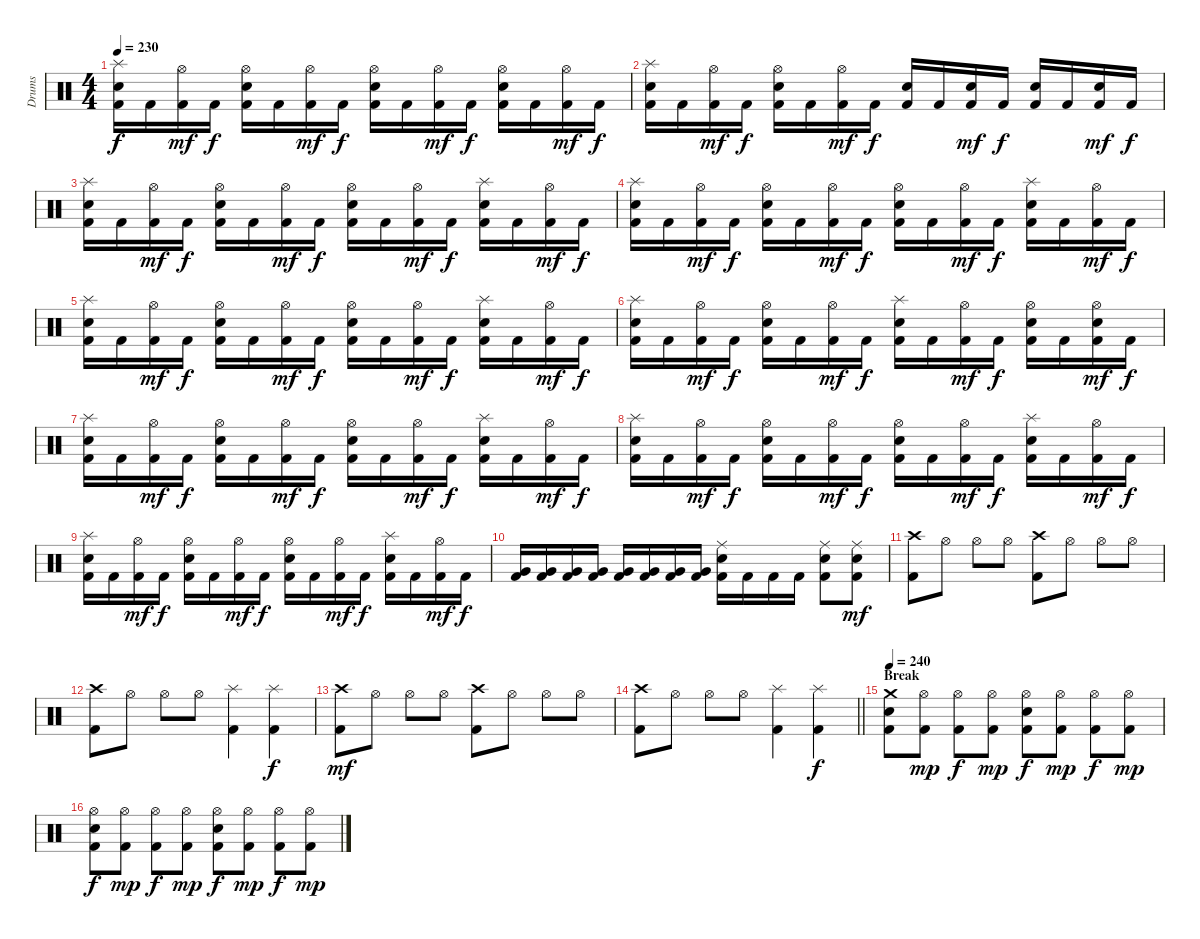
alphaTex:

\track ("Drums" "Drums") {instrument percussion}
\staff {score}
\articulation defaults
\ts (4 4)
\tempo 230
\clef neutral
\ks c
("Splash (hit)" "Snare (hit) 2" "Kick (hit) 2").16{dy f} "Kick (hit) 2".16 ("Hi-Hat (open)" "Kick (hit) 2").16{dy mf} "Kick (hit) 2".16{dy f} ("Hi-Hat (open)" "Snare (hit) 2" "Kick (hit) 2").16 "Kick (hit) 2".16 ("Hi-Hat (open)" "Kick (hit) 2").16{dy mf} "Kick (hit) 2".16{dy f} ("Hi-Hat (open)" "Snare (hit) 2" "Kick (hit) 2").16 "Kick (hit) 2".16 ("Hi-Hat (open)" "Kick (hit) 2").16{dy mf} "Kick (hit) 2".16{dy f} ("Hi-Hat (open)" "Snare (hit) 2" "Kick (hit) 2").16 "Kick (hit) 2".16 ("Hi-Hat (open)" "Kick (hit) 2").16{dy mf} "Kick (hit) 2".16{dy f} |
("Splash (hit)" "Snare (hit) 2" "Kick (hit) 2").16 "Kick (hit) 2".16 ("Hi-Hat (open)" "Kick (hit) 2").16{dy mf} "Kick (hit) 2".16{dy f} ("Hi-Hat (open)" "Snare (hit) 2" "Kick (hit) 2").16 "Kick (hit) 2".16 ("Hi-Hat (open)" "Kick (hit) 2").16{dy mf} "Kick (hit) 2".16{dy f} ("Snare (hit) 2" "Kick (hit) 2").16 "Kick (hit) 2".16 ("Snare (hit) 2" "Kick (hit) 2").16{dy mf} "Kick (hit) 2".16{dy f} ("Snare (hit) 2" "Kick (hit) 2").16 "Kick (hit) 2".16 ("Snare (hit) 2" "Kick (hit) 2").16{dy mf} "Kick (hit) 2".16{dy f} |
("Splash (hit)" "Snare (hit) 2" "Kick (hit) 2").16 "Kick (hit) 2".16 ("Hi-Hat (open)" "Kick (hit) 2").16{dy mf} "Kick (hit) 2".16{dy f} ("Hi-Hat (open)" "Snare (hit) 2" "Kick (hit) 2").16 "Kick (hit) 2".16 ("Hi-Hat (open)" "Kick (hit) 2").16{dy mf} "Kick (hit) 2".16{dy f} ("Hi-Hat (open)" "Snare (hit) 2" "Kick (hit) 2").16 "Kick (hit) 2".16 ("Hi-Hat (open)" "Kick (hit) 2").16{dy mf} "Kick (hit) 2".16{dy f} ("Splash (hit)" "Snare (hit) 2" "Kick (hit) 2").16 "Kick (hit) 2".16 ("Hi-Hat (open)" "Kick (hit) 2").16{dy mf} "Kick (hit) 2".16{dy f} |
("Splash (hit)" "Snare (hit) 2" "Kick (hit) 2").16 "Kick (hit) 2".16 ("Hi-Hat (open)" "Kick (hit) 2").16{dy mf} "Kick (hit) 2".16{dy f} ("Hi-Hat (open)" "Snare (hit) 2" "Kick (hit) 2").16 "Kick (hit) 2".16 ("Hi-Hat (open)" "Kick (hit) 2").16{dy mf} "Kick (hit) 2".16{dy f} ("Hi-Hat (open)" "Snare (hit) 2" "Kick (hit) 2").16 "Kick (hit) 2".16 ("Hi-Hat (open)" "Kick (hit) 2").16{dy mf} "Kick (hit) 2".16{dy f} ("Splash (hit)" "Snare (hit) 2" "Kick (hit) 2").16 "Kick (hit) 2".16 ("Hi-Hat (open)" "Kick (hit) 2").16{dy mf} "Kick (hit) 2".16{dy f} |
("Splash (hit)" "Snare (hit) 2" "Kick (hit) 2").16 "Kick (hit) 2".16 ("Hi-Hat (open)" "Kick (hit) 2").16{dy mf} "Kick (hit) 2".16{dy f} ("Hi-Hat (open)" "Snare (hit) 2" "Kick (hit) 2").16 "Kick (hit) 2".16 ("Hi-Hat (open)" "Kick (hit) 2").16{dy mf} "Kick (hit) 2".16{dy f} ("Hi-Hat (open)" "Snare (hit) 2" "Kick (hit) 2").16 "Kick (hit) 2".16 ("Hi-Hat (open)" "Kick (hit) 2").16{dy mf} "Kick (hit) 2".16{dy f} ("Splash (hit)" "Snare (hit) 2" "Kick (hit) 2").16 "Kick (hit) 2".16 ("Hi-Hat (open)" "Kick (hit) 2").16{dy mf} "Kick (hit) 2".16{dy f} |
("Splash (hit)" "Snare (hit) 2" "Kick (hit) 2").16 "Kick (hit) 2".16 ("Hi-Hat (open)" "Kick (hit) 2").16{dy mf} "Kick (hit) 2".16{dy f} ("Hi-Hat (open)" "Snare (hit) 2" "Kick (hit) 2").16 "Kick (hit) 2".16 ("Hi-Hat (open)" "Kick (hit) 2").16{dy mf} "Kick (hit) 2".16{dy f} ("Splash (hit)" "Snare (hit) 2" "Kick (hit) 2").16 "Kick (hit) 2".16 ("Hi-Hat (open)" "Kick (hit) 2").16{dy mf} "Kick (hit) 2".16{dy f} ("Hi-Hat (open)" "Snare (hit) 2" "Kick (hit) 2").16 "Kick (hit) 2".16 ("Hi-Hat (open)" "Snare (hit) 2" "Kick (hit) 2").16{dy mf} "Kick (hit) 2".16{dy f} |
("Splash (hit)" "Snare (hit) 2" "Kick (hit) 2").16 "Kick (hit) 2".16 ("Hi-Hat (open)" "Kick (hit) 2").16{dy mf} "Kick (hit) 2".16{dy f} ("Hi-Hat (open)" "Snare (hit) 2" "Kick (hit) 2").16 "Kick (hit) 2".16 ("Hi-Hat (open)" "Kick (hit) 2").16{dy mf} "Kick (hit) 2".16{dy f} ("Hi-Hat (open)" "Snare (hit) 2" "Kick (hit) 2").16 "Kick (hit) 2".16 ("Hi-Hat (open)" "Kick (hit) 2").16{dy mf} "Kick (hit) 2".16{dy f} ("Splash (hit)" "Snare (hit) 2" "Kick (hit) 2").16 "Kick (hit) 2".16 ("Hi-Hat (open)" "Kick (hit) 2").16{dy mf} "Kick (hit) 2".16{dy f} |
("Splash (hit)" "Snare (hit) 2" "Kick (hit) 2").16 "Kick (hit) 2".16 ("Hi-Hat (open)" "Kick (hit) 2").16{dy mf} "Kick (hit) 2".16{dy f} ("Hi-Hat (open)" "Snare (hit) 2" "Kick (hit) 2").16 "Kick (hit) 2".16 ("Hi-Hat (open)" "Kick (hit) 2").16{dy mf} "Kick (hit) 2".16{dy f} ("Hi-Hat (open)" "Snare (hit) 2" "Kick (hit) 2").16 "Kick (hit) 2".16 ("Hi-Hat (open)" "Kick (hit) 2").16{dy mf} "Kick (hit) 2".16{dy f} ("Splash (hit)" "Snare (hit) 2" "Kick (hit) 2").16 "Kick (hit) 2".16 ("Hi-Hat (open)" "Kick (hit) 2").16{dy mf} "Kick (hit) 2".16{dy f} |
("Splash (hit)" "Snare (hit) 2" "Kick (hit) 2").16 "Kick (hit) 2".16 ("Hi-Hat (open)" "Kick (hit) 2").16{dy mf} "Kick (hit) 2".16{dy f} ("Hi-Hat (open)" "Snare (hit) 2" "Kick (hit) 2").16 "Kick (hit) 2".16 ("Hi-Hat (open)" "Kick (hit) 2").16{dy mf} "Kick (hit) 2".16{dy f} ("Hi-Hat (open)" "Snare (hit) 2" "Kick (hit) 2").16 "Kick (hit) 2".16 ("Hi-Hat (open)" "Kick (hit) 2").16{dy mf} "Kick (hit) 2".16{dy f} ("Splash (hit)" "Snare (hit) 2" "Kick (hit) 2").16 "Kick (hit) 2".16 ("Hi-Hat (open)" "Kick (hit) 2").16{dy mf} "Kick (hit) 2".16{dy f} |
("Very Low Tom (hit)" "Kick (hit) 2").16 ("Very Low Tom (hit)" "Kick (hit) 2").16 ("Very Low Tom (hit)" "Kick (hit) 2").16 ("Very Low Tom (hit)" "Kick (hit) 2").16 ("Very Low Tom (hit)" "Kick (hit) 2").16 ("Very Low Tom (hit)" "Kick (hit) 2").16 ("Very Low Tom (hit)" "Kick (hit) 2").16 ("Very Low Tom (hit)" "Kick (hit) 2").16 ("Ride (middle)" "Snare (hit) 2" "Kick (hit) 2").16 "Kick (hit) 2".16 "Kick (hit) 2".16 "Kick (hit) 2".16 ("Ride (middle)" "Snare (hit) 2" "Kick (hit) 2").8 ("Ride (middle)" "Snare (hit) 2" "Kick (hit) 2").8{dy mf} |
("Crash high (hit)" "Kick (hit) 2").8 "Hi-Hat (open)".8 "Hi-Hat (open)".8 "Hi-Hat (open)".8 ("Crash high (hit)" "Kick (hit) 2").8 "Hi-Hat (open)".8 "Hi-Hat (open)".8 "Hi-Hat (open)".8 |
("Crash high (hit)" "Kick (hit) 2").8 "Hi-Hat (open)".8 "Hi-Hat (open)".8 "Hi-Hat (open)".8 ("Splash (hit)" "Kick (hit) 2").4 ("Splash (hit)" "Kick (hit) 2").4{dy f} |
("Crash high (hit)" "Kick (hit) 2").8{dy mf} "Hi-Hat (open)".8 "Hi-Hat (open)".8 "Hi-Hat (open)".8 ("Crash high (hit)" "Kick (hit) 2").8 "Hi-Hat (open)".8 "Hi-Hat (open)".8 "Hi-Hat (open)".8 |
\barLineRight lightlight
("Crash high (hit)" "Kick (hit) 2").8 "Hi-Hat (open)".8 "Hi-Hat (open)".8 "Hi-Hat (open)".8 ("Splash (hit)" "Kick (hit) 2").4 ("Splash (hit)" "Kick (hit) 2").4{dy f} |
\section ("" "Break")
\tempo 240
("Crash medium (hit)" "Snare (hit) 2" "Kick (hit) 2").8 ("Hi-Hat (open)" "Kick (hit) 2").8{dy mp} ("Hi-Hat (open)" "Kick (hit) 2").8{dy f} ("Hi-Hat (open)" "Kick (hit) 2").8{dy mp} ("Hi-Hat (open)" "Snare (hit) 2" "Kick (hit) 2").8{dy f} ("Hi-Hat (open)" "Kick (hit) 2").8{dy mp} ("Hi-Hat (open)" "Kick (hit) 2").8{dy f} ("Hi-Hat (open)" "Kick (hit) 2").8{dy mp} |
("Hi-Hat (open)" "Snare (hit) 2" "Kick (hit) 2").8{dy f} ("Hi-Hat (open)" "Kick (hit) 2").8{dy mp} ("Hi-Hat (open)" "Kick (hit) 2").8{dy f} ("Hi-Hat (open)" "Kick (hit) 2").8{dy mp} ("Hi-Hat (open)" "Snare (hit) 2" "Kick (hit) 2").8{dy f} ("Hi-Hat (open)" "Kick (hit) 2").8{dy mp} ("Hi-Hat (open)" "Kick (hit) 2").8{dy f} ("Hi-Hat (open)" "Kick (hit) 2").8{dy mp}
